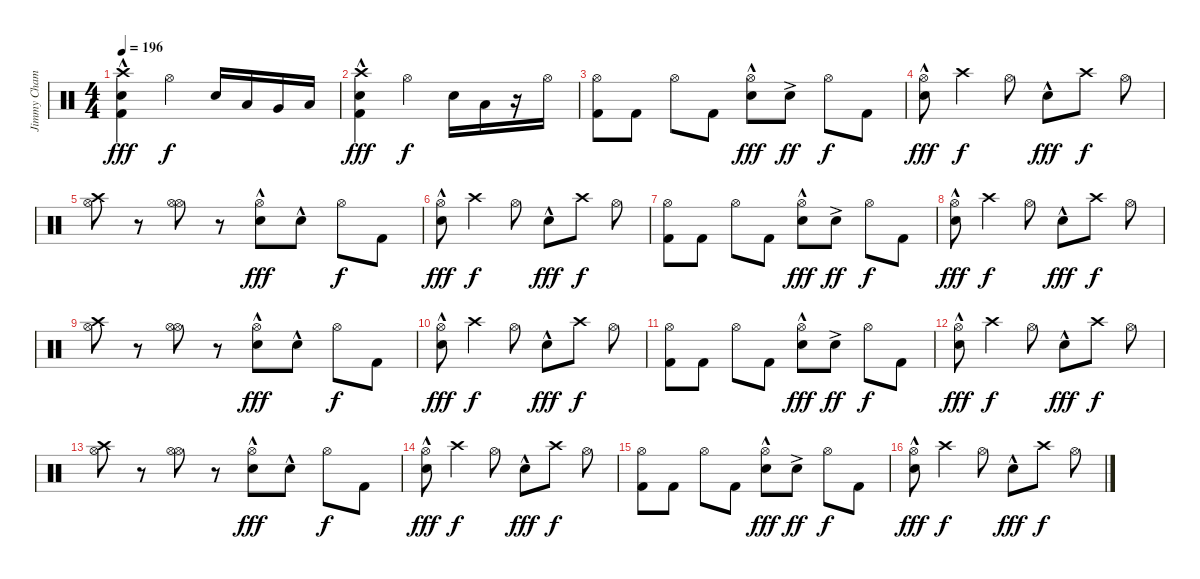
\track ("Jimmy Chamberlin" "Jimmy Cham") {instrument percussion}
\staff {score}
\articulation defaults
\ts (4 4)
\tempo 196
\clef neutral
\ks c
("Crash high (hit)" "Electric Snare (hit)"{hac} "Kick (hit) 2"{hac}).4{dy fff} "Hi-Hat (open)".4{dy f} "Electric Snare (hit)".16 "Low Tom (hit)".16 "Very Low Tom (hit)".16 "Low Floor Tom (hit)".16 |
("Crash high (hit)" "Electric Snare (hit)"{hac} "Kick (hit) 2"{hac}).4{dy fff} "Hi-Hat (open)".4{dy f} "Electric Snare (hit)".16 "Low Tom (hit)".16 r.16 "Hi-Hat (open)".16 |
("Hi-Hat (open)" "Kick (hit) 2").8 "Kick (hit) 2".8 "Hi-Hat (open)".8 "Kick (hit) 2".8 ("Hi-Hat (open)" "Electric Snare (hit)"{hac}).8{dy fff} "Electric Snare (hit)"{ac}.8{dy ff} "Hi-Hat (open)".8{dy f} "Kick (hit) 2".8 |
("Hi-Hat (open)" "Electric Snare (hit)"{hac}).8{dy fff} "Crash high (hit)".4{dy f} "Hi-Hat (open)".8 "Electric Snare (hit)"{hac}.8{dy fff} "Crash high (hit)".8{dy f} "Hi-Hat (open)".8 |
("Crash high (hit)" "Hi-Hat (open)").8 r.8 ("Hi-Hat (open)" "Hi-Hat (open)").8 r.8 ("Hi-Hat (open)" "Electric Snare (hit)"{hac}).8{dy fff} "Electric Snare (hit)"{hac}.8 "Hi-Hat (open)".8{dy f} "Kick (hit) 2".8 |
("Hi-Hat (open)" "Electric Snare (hit)"{hac}).8{dy fff} "Crash high (hit)".4{dy f} "Hi-Hat (open)".8 "Electric Snare (hit)"{hac}.8{dy fff} "Crash high (hit)".8{dy f} "Hi-Hat (open)".8 |
("Hi-Hat (open)" "Kick (hit) 2").8 "Kick (hit) 2".8 "Hi-Hat (open)".8 "Kick (hit) 2".8 ("Hi-Hat (open)" "Electric Snare (hit)"{hac}).8{dy fff} "Electric Snare (hit)"{ac}.8{dy ff} "Hi-Hat (open)".8{dy f} "Kick (hit) 2".8 |
("Hi-Hat (open)" "Electric Snare (hit)"{hac}).8{dy fff} "Crash high (hit)".4{dy f} "Hi-Hat (open)".8 "Electric Snare (hit)"{hac}.8{dy fff} "Crash high (hit)".8{dy f} "Hi-Hat (open)".8 |
("Crash high (hit)" "Hi-Hat (open)").8 r.8 ("Hi-Hat (open)" "Hi-Hat (open)").8 r.8 ("Hi-Hat (open)" "Electric Snare (hit)"{hac}).8{dy fff} "Electric Snare (hit)"{hac}.8 "Hi-Hat (open)".8{dy f} "Kick (hit) 2".8 |
("Hi-Hat (open)" "Electric Snare (hit)"{hac}).8{dy fff} "Crash high (hit)".4{dy f} "Hi-Hat (open)".8 "Electric Snare (hit)"{hac}.8{dy fff} "Crash high (hit)".8{dy f} "Hi-Hat (open)".8 |
("Hi-Hat (open)" "Kick (hit) 2").8 "Kick (hit) 2".8 "Hi-Hat (open)".8 "Kick (hit) 2".8 ("Hi-Hat (open)" "Electric Snare (hit)"{hac}).8{dy fff} "Electric Snare (hit)"{ac}.8{dy ff} "Hi-Hat (open)".8{dy f} "Kick (hit) 2".8 |
("Hi-Hat (open)" "Electric Snare (hit)"{hac}).8{dy fff} "Crash high (hit)".4{dy f} "Hi-Hat (open)".8 "Electric Snare (hit)"{hac}.8{dy fff} "Crash high (hit)".8{dy f} "Hi-Hat (open)".8 |
("Crash high (hit)" "Hi-Hat (open)").8 r.8 ("Hi-Hat (open)" "Hi-Hat (open)").8 r.8 ("Hi-Hat (open)" "Electric Snare (hit)"{hac}).8{dy fff} "Electric Snare (hit)"{hac}.8 "Hi-Hat (open)".8{dy f} "Kick (hit) 2".8 |
("Hi-Hat (open)" "Electric Snare (hit)"{hac}).8{dy fff} "Crash high (hit)".4{dy f} "Hi-Hat (open)".8 "Electric Snare (hit)"{hac}.8{dy fff} "Crash high (hit)".8{dy f} "Hi-Hat (open)".8 |
("Hi-Hat (open)" "Kick (hit) 2").8 "Kick (hit) 2".8 "Hi-Hat (open)".8 "Kick (hit) 2".8 ("Hi-Hat (open)" "Electric Snare (hit)"{hac}).8{dy fff} "Electric Snare (hit)"{ac}.8{dy ff} "Hi-Hat (open)".8{dy f} "Kick (hit) 2".8 |
("Hi-Hat (open)" "Electric Snare (hit)"{hac}).8{dy fff} "Crash high (hit)".4{dy f} "Hi-Hat (open)".8 "Electric Snare (hit)"{hac}.8{dy fff} "Crash high (hit)".8{dy f} "Hi-Hat (open)".8
